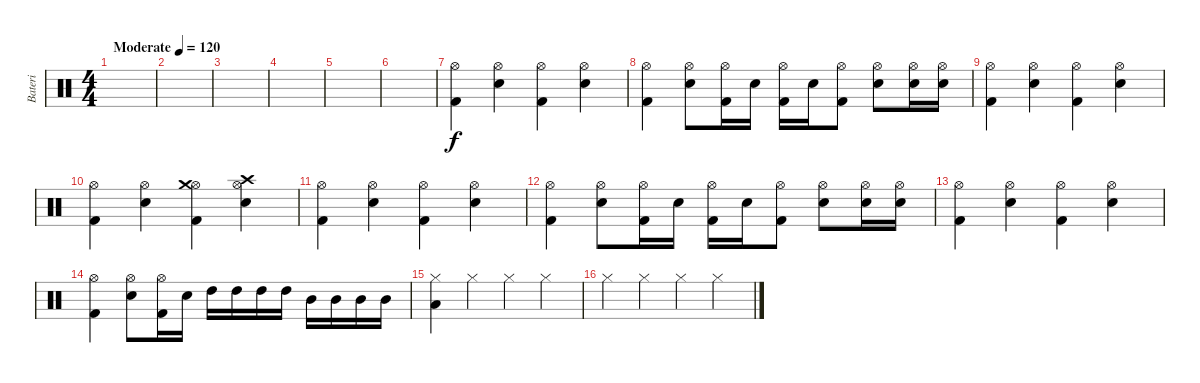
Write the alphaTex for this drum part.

\track ("Bateri" "Bateri") {instrument percussion}
\staff {score}
\articulation defaults
\ts (4 4)
\tempo (120 "Moderate")
\clef neutral
\ks c
|
|
|
|
|
|
("Kick (hit) 2" "Hi-Hat (open)").4 ("Electric Snare (hit)" "Hi-Hat (open)").4 ("Kick (hit) 2" "Hi-Hat (open)").4 ("Electric Snare (hit)" "Hi-Hat (open)").4 |
("Kick (hit) 2" "Hi-Hat (open)").4 ("Electric Snare (hit)" "Hi-Hat (open)").8 ("Kick (hit) 2" "Hi-Hat (open)").16 "Electric Snare (hit)".16 ("Kick (hit) 2" "Hi-Hat (open)").16 "Electric Snare (hit)".16 ("Kick (hit) 2" "Hi-Hat (open)").8 ("Electric Snare (hit)" "Hi-Hat (open)").8 ("Electric Snare (hit)" "Hi-Hat (open)").16 ("Electric Snare (hit)" "Hi-Hat (open)").16 |
("Kick (hit) 2" "Hi-Hat (open)").4 ("Electric Snare (hit)" "Hi-Hat (open)").4 ("Kick (hit) 2" "Hi-Hat (open)").4 ("Electric Snare (hit)" "Hi-Hat (open)").4 |
("Kick (hit) 2" "Hi-Hat (open)").4 ("Electric Snare (hit)" "Hi-Hat (open)").4 ("Kick (hit) 2" "Hi-Hat (open)" "Crash medium (hit)").4 ("Electric Snare (hit)" "Hi-Hat (open)" "Crash high (hit)").4 |
("Kick (hit) 2" "Hi-Hat (open)").4 ("Electric Snare (hit)" "Hi-Hat (open)").4 ("Kick (hit) 2" "Hi-Hat (open)").4 ("Electric Snare (hit)" "Hi-Hat (open)").4 |
("Kick (hit) 2" "Hi-Hat (open)").4 ("Electric Snare (hit)" "Hi-Hat (open)").8 ("Kick (hit) 2" "Hi-Hat (open)").16 "Electric Snare (hit)".16 ("Kick (hit) 2" "Hi-Hat (open)").16 "Electric Snare (hit)".16 ("Kick (hit) 2" "Hi-Hat (open)").8 ("Electric Snare (hit)" "Hi-Hat (open)").8 ("Electric Snare (hit)" "Hi-Hat (open)").16 ("Electric Snare (hit)" "Hi-Hat (open)").16 |
("Kick (hit) 2" "Hi-Hat (open)").4 ("Electric Snare (hit)" "Hi-Hat (open)").4 ("Kick (hit) 2" "Hi-Hat (open)").4 ("Electric Snare (hit)" "Hi-Hat (open)").4 |
("Kick (hit) 2" "Hi-Hat (open)").4 ("Electric Snare (hit)" "Hi-Hat (open)").8 ("Kick (hit) 2" "Hi-Hat (open)").16 "Electric Snare (hit)".16 "High Tom (hit)".16 "High Tom (hit)".16 "High Tom (hit)".16 "High Tom (hit)".16 "Mid Tom (hit)".16 "Mid Tom (hit)".16 "Mid Tom (hit)".16 "Mid Tom (hit)".16 |
("Low Tom (hit)" "Hi-Hat (closed)").4 "Hi-Hat (closed)".4 "Hi-Hat (closed)".4 "Hi-Hat (closed)".4 |
"Hi-Hat (closed)".4 "Hi-Hat (closed)".4 "Hi-Hat (closed)".4 "Hi-Hat (closed)".4
